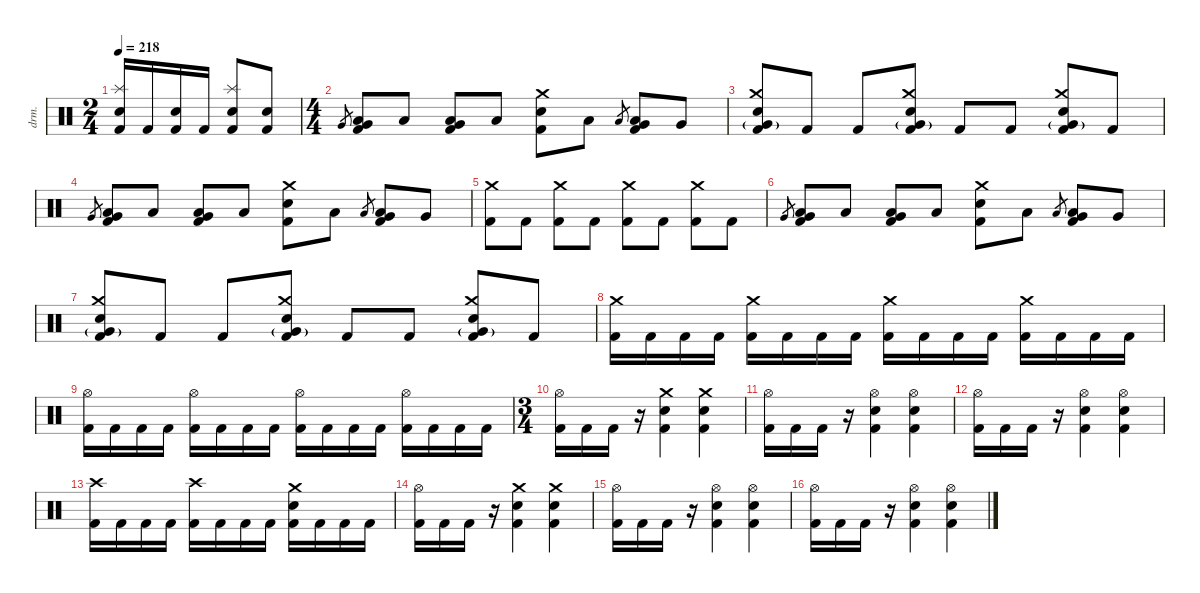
\defaultSystemsLayout 4
\hideDynamics
\bracketExtendMode nobrackets
\otherSystemsTrackNameOrientation horizontal
\track ("Drums" "drm.") {instrument percussion}
\staff {score}
\articulation defaults
\ts (2 4)
\beaming (8 2 2)
\tempo 218
\clef neutral
\ks c
("Splash (hit)" "Snare (hit) 2" "Kick (hit) 2").16{dy f beam Up} "Kick (hit) 2".16{beam Up} ("Snare (hit) 2" "Kick (hit) 2").16{beam Up} "Kick (hit) 2".16{beam Up} ("Splash (hit)" "Snare (hit) 2" "Kick (hit) 2").8{beam Up} ("Snare (hit) 2" "Kick (hit) 2").8{beam Up} |
\ts (4 4)
\beaming (8 2 2 2 2)
"Very Low Tom (hit)".8{gr dy mf beam Up} ("Very Low Tom (hit)" "Low Tom (hit)" "Kick (hit) 2").8{dy f beam Up} "Low Tom (hit)".8{beam Up} ("Very Low Tom (hit)" "Low Floor Tom (hit)" "Kick (hit) 2").8{beam Up} "Low Tom (hit)".8{beam Up} ("Crash medium (hit)" "Snare (hit) 2" "Kick (hit) 2").8{beam Down} "Low Tom (hit)".8{beam Down} "Low Tom (hit)".8{gr dy mf beam Up} ("Low Tom (hit)" "Very Low Tom (hit)" "Kick (hit) 2").8{dy f beam Up} "Very Low Tom (hit)".8{beam Up} |
("Crash medium (hit)" "Very Low Tom (hit)"{g} "Snare (hit) 2" "Kick (hit) 2").8{beam Up} "Kick (hit) 2".8{beam Up} "Kick (hit) 2".8{beam Up} ("Crash medium (hit)" "Very Low Tom (hit)"{g} "Snare (hit) 2" "Kick (hit) 2").8{beam Up} "Kick (hit) 2".8{beam Up} "Kick (hit) 2".8{beam Up} ("Crash medium (hit)" "Very Low Tom (hit)"{g} "Snare (hit) 2" "Kick (hit) 2").8{beam Up} "Kick (hit) 2".8{beam Up} |
"Very Low Tom (hit)".8{gr dy mf beam Up} ("Very Low Tom (hit)" "Low Tom (hit)" "Kick (hit) 2").8{dy f beam Up} "Low Tom (hit)".8{beam Up} ("Very Low Tom (hit)" "Low Floor Tom (hit)" "Kick (hit) 2").8{beam Up} "Low Tom (hit)".8{beam Up} ("Crash medium (hit)" "Snare (hit) 2" "Kick (hit) 2").8{beam Down} "Low Tom (hit)".8{beam Down} "Low Tom (hit)".8{gr dy mf beam Up} ("Low Tom (hit)" "Very Low Tom (hit)" "Kick (hit) 2").8{dy f beam Up} "Very Low Tom (hit)".8{beam Up} |
("Crash medium (hit)" "Kick (hit) 2").8{beam Down} "Kick (hit) 2".8{beam Down} ("Crash medium (hit)" "Kick (hit) 2").8{beam Down} "Kick (hit) 2".8{beam Down} ("Crash medium (hit)" "Kick (hit) 2").8{beam Down} "Kick (hit) 2".8{beam Down} ("Crash medium (hit)" "Kick (hit) 2").8{beam Down} "Kick (hit) 2".8{beam Down} |
"Very Low Tom (hit)".8{gr dy mf beam Up} ("Very Low Tom (hit)" "Low Tom (hit)" "Kick (hit) 2").8{dy f beam Up} "Low Tom (hit)".8{beam Up} ("Very Low Tom (hit)" "Low Floor Tom (hit)" "Kick (hit) 2").8{beam Up} "Low Tom (hit)".8{beam Up} ("Crash medium (hit)" "Snare (hit) 2" "Kick (hit) 2").8{beam Down} "Low Tom (hit)".8{beam Down} "Low Tom (hit)".8{gr dy mf beam Up} ("Low Tom (hit)" "Very Low Tom (hit)" "Kick (hit) 2").8{dy f beam Up} "Very Low Tom (hit)".8{beam Up} |
("Crash medium (hit)" "Very Low Tom (hit)"{g} "Snare (hit) 2" "Kick (hit) 2").8{beam Up} "Kick (hit) 2".8{beam Up} "Kick (hit) 2".8{beam Up} ("Crash medium (hit)" "Very Low Tom (hit)"{g} "Snare (hit) 2" "Kick (hit) 2").8{beam Up} "Kick (hit) 2".8{beam Up} "Kick (hit) 2".8{beam Up} ("Crash medium (hit)" "Very Low Tom (hit)"{g} "Snare (hit) 2" "Kick (hit) 2").8{beam Up} "Kick (hit) 2".8{beam Up} |
("Crash medium (hit)" "Kick (hit) 2").16{beam Down} "Kick (hit) 2".16{beam Down} "Kick (hit) 2".16{beam Down} "Kick (hit) 2".16{beam Down} ("Crash medium (hit)" "Kick (hit) 2").16{beam Down} "Kick (hit) 2".16{beam Down} "Kick (hit) 2".16{beam Down} "Kick (hit) 2".16{beam Down} ("Crash medium (hit)" "Kick (hit) 2").16{beam Down} "Kick (hit) 2".16{beam Down} "Kick (hit) 2".16{beam Down} "Kick (hit) 2".16{beam Down} ("Crash medium (hit)" "Kick (hit) 2").16{beam Down} "Kick (hit) 2".16{beam Down} "Kick (hit) 2".16{beam Down} "Kick (hit) 2".16{beam Down} |
("Hi-Hat (open)" "Kick (hit) 2").16{dy mf beam Down} "Kick (hit) 2".16{dy f beam Down} "Kick (hit) 2".16{beam Down} "Kick (hit) 2".16{beam Down} ("Hi-Hat (open)" "Kick (hit) 2").16{beam Down} "Kick (hit) 2".16{beam Down} "Kick (hit) 2".16{beam Down} "Kick (hit) 2".16{beam Down} ("Hi-Hat (open)" "Kick (hit) 2").16{beam Down} "Kick (hit) 2".16{beam Down} "Kick (hit) 2".16{beam Down} "Kick (hit) 2".16{beam Down} ("Hi-Hat (open)" "Kick (hit) 2").16{beam Down} "Kick (hit) 2".16{beam Down} "Kick (hit) 2".16{beam Down} "Kick (hit) 2".16{beam Down} |
\ts (3 4)
\beaming (8 2 2 2)
("Hi-Hat (open)" "Kick (hit) 2").16{beam Down} "Kick (hit) 2".16{beam Down} "Kick (hit) 2".16{beam Down} r.16{beam Down} ("Crash medium (hit)" "Snare (hit) 2" "Kick (hit) 2").4{beam Down} ("Crash medium (hit)" "Snare (hit) 2" "Kick (hit) 2").4{beam Down} |
("Hi-Hat (open)" "Kick (hit) 2").16{beam Down} "Kick (hit) 2".16{beam Down} "Kick (hit) 2".16{beam Down} r.16{beam Down} ("Hi-Hat (open)" "Snare (hit) 2" "Kick (hit) 2").4{beam Down} ("Hi-Hat (open)" "Snare (hit) 2" "Kick (hit) 2").4{beam Down} |
("Hi-Hat (open)" "Kick (hit) 2").16{beam Down} "Kick (hit) 2".16{beam Down} "Kick (hit) 2".16{beam Down} r.16{beam Down} ("Hi-Hat (open)" "Snare (hit) 2" "Kick (hit) 2").4{beam Down} ("Hi-Hat (open)" "Snare (hit) 2" "Kick (hit) 2").4{beam Down} |
("Crash high (hit)" "Kick (hit) 2").16{beam Down} "Kick (hit) 2".16{beam Down} "Kick (hit) 2".16{beam Down} "Kick (hit) 2".16{beam Down} ("Crash high (hit)" "Kick (hit) 2").16{beam Down} "Kick (hit) 2".16{beam Down} "Kick (hit) 2".16{beam Down} "Kick (hit) 2".16{beam Down} ("Crash medium (hit)" "Snare (hit) 2" "Kick (hit) 2").16{beam Down} "Kick (hit) 2".16{beam Down} "Kick (hit) 2".16{beam Down} "Kick (hit) 2".16{beam Down} |
("Hi-Hat (open)" "Kick (hit) 2").16{beam Down} "Kick (hit) 2".16{beam Down} "Kick (hit) 2".16{beam Down} r.16{beam Down} ("Crash medium (hit)" "Snare (hit) 2" "Kick (hit) 2").4{beam Down} ("Crash medium (hit)" "Snare (hit) 2" "Kick (hit) 2").4{beam Down} |
("Hi-Hat (open)" "Kick (hit) 2").16{beam Down} "Kick (hit) 2".16{beam Down} "Kick (hit) 2".16{beam Down} r.16{beam Down} ("Hi-Hat (open)" "Snare (hit) 2" "Kick (hit) 2").4{beam Down} ("Hi-Hat (open)" "Snare (hit) 2" "Kick (hit) 2").4{beam Down} |
("Hi-Hat (open)" "Kick (hit) 2").16{beam Down} "Kick (hit) 2".16{beam Down} "Kick (hit) 2".16{beam Down} r.16{beam Down} ("Hi-Hat (open)" "Snare (hit) 2" "Kick (hit) 2").4{beam Down} ("Hi-Hat (open)" "Snare (hit) 2" "Kick (hit) 2").4{beam Down}
